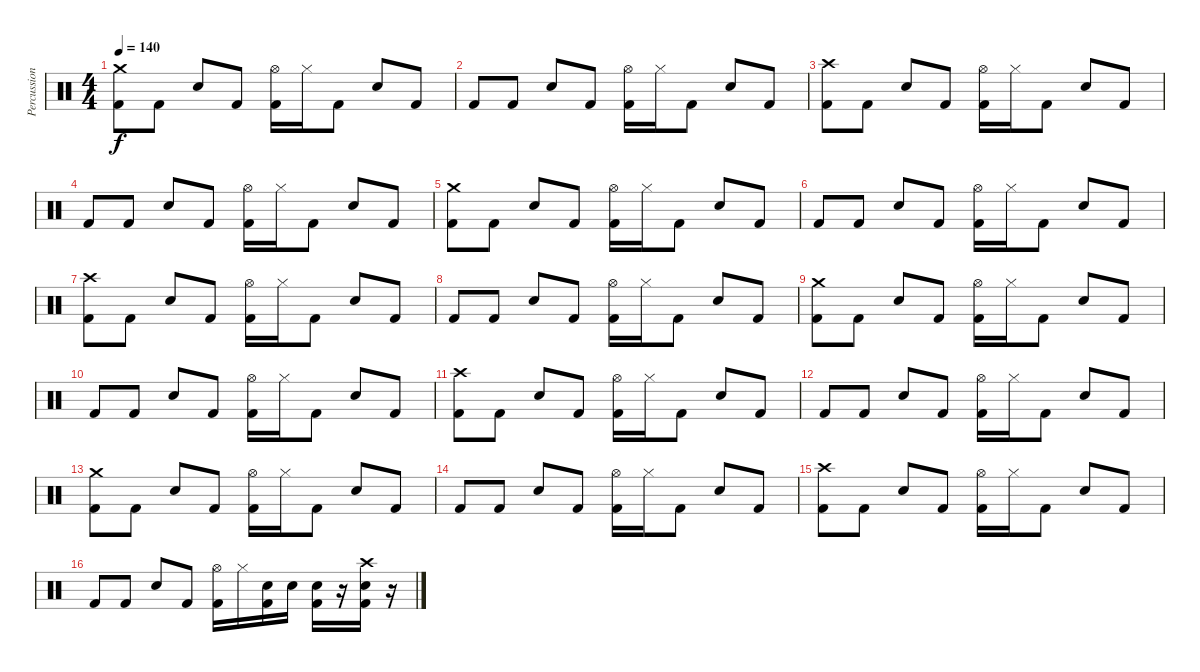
\track ("Percussion" "Percussion") {instrument percussion}
\staff {score}
\articulation defaults
\ts (4 4)
\tempo 140
\clef neutral
\ks c
("Crash medium (hit)" "Kick (hit) 2").8{dy f} "Kick (hit) 2".8 "Snare (hit) 2".8 "Kick (hit) 2".8 ("Hi-Hat (open)" "Kick (hit) 2").16 "Hi-Hat (closed)".16 "Kick (hit) 2".8 "Snare (hit) 2".8 "Kick (hit) 2".8 |
"Kick (hit) 2".8 "Kick (hit) 2".8 "Snare (hit) 2".8 "Kick (hit) 2".8 ("Hi-Hat (open)" "Kick (hit) 2").16 "Hi-Hat (closed)".16 "Kick (hit) 2".8 "Snare (hit) 2".8 "Kick (hit) 2".8 |
("Crash high (hit)" "Kick (hit) 2").8 "Kick (hit) 2".8 "Snare (hit) 2".8 "Kick (hit) 2".8 ("Hi-Hat (open)" "Kick (hit) 2").16 "Hi-Hat (closed)".16 "Kick (hit) 2".8 "Snare (hit) 2".8 "Kick (hit) 2".8 |
"Kick (hit) 2".8 "Kick (hit) 2".8 "Snare (hit) 2".8 "Kick (hit) 2".8 ("Hi-Hat (open)" "Kick (hit) 2").16 "Hi-Hat (closed)".16 "Kick (hit) 2".8 "Snare (hit) 2".8 "Kick (hit) 2".8 |
("Crash medium (hit)" "Kick (hit) 2").8 "Kick (hit) 2".8 "Snare (hit) 2".8 "Kick (hit) 2".8 ("Hi-Hat (open)" "Kick (hit) 2").16 "Hi-Hat (closed)".16 "Kick (hit) 2".8 "Snare (hit) 2".8 "Kick (hit) 2".8 |
"Kick (hit) 2".8 "Kick (hit) 2".8 "Snare (hit) 2".8 "Kick (hit) 2".8 ("Hi-Hat (open)" "Kick (hit) 2").16 "Hi-Hat (closed)".16 "Kick (hit) 2".8 "Snare (hit) 2".8 "Kick (hit) 2".8 |
("Crash high (hit)" "Kick (hit) 2").8 "Kick (hit) 2".8 "Snare (hit) 2".8 "Kick (hit) 2".8 ("Hi-Hat (open)" "Kick (hit) 2").16 "Hi-Hat (closed)".16 "Kick (hit) 2".8 "Snare (hit) 2".8 "Kick (hit) 2".8 |
"Kick (hit) 2".8 "Kick (hit) 2".8 "Snare (hit) 2".8 "Kick (hit) 2".8 ("Hi-Hat (open)" "Kick (hit) 2").16 "Hi-Hat (closed)".16 "Kick (hit) 2".8 "Snare (hit) 2".8 "Kick (hit) 2".8 |
("Crash medium (hit)" "Kick (hit) 2").8 "Kick (hit) 2".8 "Snare (hit) 2".8 "Kick (hit) 2".8 ("Hi-Hat (open)" "Kick (hit) 2").16 "Hi-Hat (closed)".16 "Kick (hit) 2".8 "Snare (hit) 2".8 "Kick (hit) 2".8 |
"Kick (hit) 2".8 "Kick (hit) 2".8 "Snare (hit) 2".8 "Kick (hit) 2".8 ("Hi-Hat (open)" "Kick (hit) 2").16 "Hi-Hat (closed)".16 "Kick (hit) 2".8 "Snare (hit) 2".8 "Kick (hit) 2".8 |
("Crash high (hit)" "Kick (hit) 2").8 "Kick (hit) 2".8 "Snare (hit) 2".8 "Kick (hit) 2".8 ("Hi-Hat (open)" "Kick (hit) 2").16 "Hi-Hat (closed)".16 "Kick (hit) 2".8 "Snare (hit) 2".8 "Kick (hit) 2".8 |
"Kick (hit) 2".8 "Kick (hit) 2".8 "Snare (hit) 2".8 "Kick (hit) 2".8 ("Hi-Hat (open)" "Kick (hit) 2").16 "Hi-Hat (closed)".16 "Kick (hit) 2".8 "Snare (hit) 2".8 "Kick (hit) 2".8 |
("Crash medium (hit)" "Kick (hit) 2").8 "Kick (hit) 2".8 "Snare (hit) 2".8 "Kick (hit) 2".8 ("Hi-Hat (open)" "Kick (hit) 2").16 "Hi-Hat (closed)".16 "Kick (hit) 2".8 "Snare (hit) 2".8 "Kick (hit) 2".8 |
"Kick (hit) 2".8 "Kick (hit) 2".8 "Snare (hit) 2".8 "Kick (hit) 2".8 ("Hi-Hat (open)" "Kick (hit) 2").16 "Hi-Hat (closed)".16 "Kick (hit) 2".8 "Snare (hit) 2".8 "Kick (hit) 2".8 |
("Crash high (hit)" "Kick (hit) 2").8 "Kick (hit) 2".8 "Snare (hit) 2".8 "Kick (hit) 2".8 ("Hi-Hat (open)" "Kick (hit) 2").16 "Hi-Hat (closed)".16 "Kick (hit) 2".8 "Snare (hit) 2".8 "Kick (hit) 2".8 |
"Kick (hit) 2".8 "Kick (hit) 2".8 "Snare (hit) 2".8 "Kick (hit) 2".8 ("Hi-Hat (open)" "Kick (hit) 2").16 "Hi-Hat (closed)".16 ("Snare (hit) 2" "Kick (hit) 2").16 "Snare (hit) 2".16 ("Snare (hit) 2" "Kick (hit) 2").16 r.16 ("Crash high (hit)" "Snare (hit) 2" "Kick (hit) 2").16 r.16
